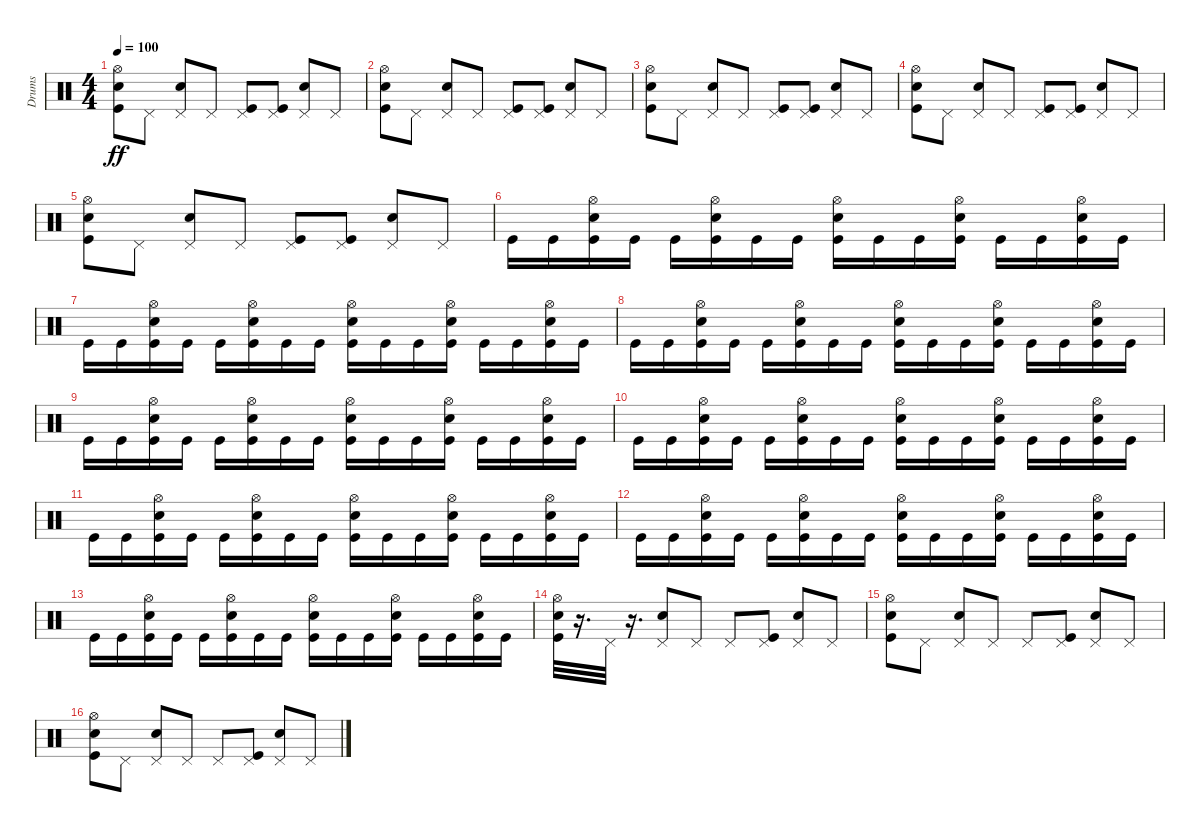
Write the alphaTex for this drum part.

\track ("Drums" "Drums") {instrument percussion}
\staff {score}
\articulation defaults
\ts (4 4)
\tempo 100
\clef neutral
\ks c
("Kick (hit)" "Electric Snare (hit)" "Hi-Hat (open)").8{dy ff} "Pedal Hi-Hat (hit)".8 ("Electric Snare (hit)" "Pedal Hi-Hat (hit)").8 "Pedal Hi-Hat (hit)".8 ("Kick (hit)" "Pedal Hi-Hat (hit)").8 ("Kick (hit)" "Pedal Hi-Hat (hit)").8 ("Electric Snare (hit)" "Pedal Hi-Hat (hit)").8 "Pedal Hi-Hat (hit)".8 |
("Kick (hit)" "Electric Snare (hit)" "Hi-Hat (open)").8 "Pedal Hi-Hat (hit)".8 ("Electric Snare (hit)" "Pedal Hi-Hat (hit)").8 "Pedal Hi-Hat (hit)".8 ("Kick (hit)" "Pedal Hi-Hat (hit)").8 ("Kick (hit)" "Pedal Hi-Hat (hit)").8 ("Electric Snare (hit)" "Pedal Hi-Hat (hit)").8 "Pedal Hi-Hat (hit)".8 |
("Kick (hit)" "Electric Snare (hit)" "Hi-Hat (open)").8 "Pedal Hi-Hat (hit)".8 ("Electric Snare (hit)" "Pedal Hi-Hat (hit)").8 "Pedal Hi-Hat (hit)".8 ("Kick (hit)" "Pedal Hi-Hat (hit)").8 ("Kick (hit)" "Pedal Hi-Hat (hit)").8 ("Electric Snare (hit)" "Pedal Hi-Hat (hit)").8 "Pedal Hi-Hat (hit)".8 |
("Kick (hit)" "Electric Snare (hit)" "Hi-Hat (open)").8 "Pedal Hi-Hat (hit)".8 ("Electric Snare (hit)" "Pedal Hi-Hat (hit)").8 "Pedal Hi-Hat (hit)".8 ("Kick (hit)" "Pedal Hi-Hat (hit)").8 ("Kick (hit)" "Pedal Hi-Hat (hit)").8 ("Electric Snare (hit)" "Pedal Hi-Hat (hit)").8 "Pedal Hi-Hat (hit)".8 |
("Kick (hit)" "Electric Snare (hit)" "Hi-Hat (open)").8 "Pedal Hi-Hat (hit)".8 ("Electric Snare (hit)" "Pedal Hi-Hat (hit)").8 "Pedal Hi-Hat (hit)".8 ("Kick (hit)" "Pedal Hi-Hat (hit)").8 ("Kick (hit)" "Pedal Hi-Hat (hit)").8 ("Electric Snare (hit)" "Pedal Hi-Hat (hit)").8 "Pedal Hi-Hat (hit)".8 |
"Kick (hit)".16 "Kick (hit)".16 ("Kick (hit)" "Electric Snare (hit)" "Hi-Hat (open)").16 "Kick (hit)".16 "Kick (hit)".16 ("Kick (hit)" "Electric Snare (hit)" "Hi-Hat (open)").16 "Kick (hit)".16 "Kick (hit)".16 ("Kick (hit)" "Electric Snare (hit)" "Hi-Hat (open)").16 "Kick (hit)".16 "Kick (hit)".16 ("Kick (hit)" "Electric Snare (hit)" "Hi-Hat (open)").16 "Kick (hit)".16 "Kick (hit)".16 ("Kick (hit)" "Electric Snare (hit)" "Hi-Hat (open)").16 "Kick (hit)".16 |
"Kick (hit)".16 "Kick (hit)".16 ("Kick (hit)" "Electric Snare (hit)" "Hi-Hat (open)").16 "Kick (hit)".16 "Kick (hit)".16 ("Kick (hit)" "Electric Snare (hit)" "Hi-Hat (open)").16 "Kick (hit)".16 "Kick (hit)".16 ("Kick (hit)" "Electric Snare (hit)" "Hi-Hat (open)").16 "Kick (hit)".16 "Kick (hit)".16 ("Kick (hit)" "Electric Snare (hit)" "Hi-Hat (open)").16 "Kick (hit)".16 "Kick (hit)".16 ("Kick (hit)" "Electric Snare (hit)" "Hi-Hat (open)").16 "Kick (hit)".16 |
"Kick (hit)".16 "Kick (hit)".16 ("Kick (hit)" "Electric Snare (hit)" "Hi-Hat (open)").16 "Kick (hit)".16 "Kick (hit)".16 ("Kick (hit)" "Electric Snare (hit)" "Hi-Hat (open)").16 "Kick (hit)".16 "Kick (hit)".16 ("Kick (hit)" "Electric Snare (hit)" "Hi-Hat (open)").16 "Kick (hit)".16 "Kick (hit)".16 ("Kick (hit)" "Electric Snare (hit)" "Hi-Hat (open)").16 "Kick (hit)".16 "Kick (hit)".16 ("Kick (hit)" "Electric Snare (hit)" "Hi-Hat (open)").16 "Kick (hit)".16 |
"Kick (hit)".16 "Kick (hit)".16 ("Kick (hit)" "Electric Snare (hit)" "Hi-Hat (open)").16 "Kick (hit)".16 "Kick (hit)".16 ("Kick (hit)" "Electric Snare (hit)" "Hi-Hat (open)").16 "Kick (hit)".16 "Kick (hit)".16 ("Kick (hit)" "Electric Snare (hit)" "Hi-Hat (open)").16 "Kick (hit)".16 "Kick (hit)".16 ("Kick (hit)" "Electric Snare (hit)" "Hi-Hat (open)").16 "Kick (hit)".16 "Kick (hit)".16 ("Kick (hit)" "Electric Snare (hit)" "Hi-Hat (open)").16 "Kick (hit)".16 |
"Kick (hit)".16 "Kick (hit)".16 ("Kick (hit)" "Electric Snare (hit)" "Hi-Hat (open)").16 "Kick (hit)".16 "Kick (hit)".16 ("Kick (hit)" "Electric Snare (hit)" "Hi-Hat (open)").16 "Kick (hit)".16 "Kick (hit)".16 ("Kick (hit)" "Electric Snare (hit)" "Hi-Hat (open)").16 "Kick (hit)".16 "Kick (hit)".16 ("Kick (hit)" "Electric Snare (hit)" "Hi-Hat (open)").16 "Kick (hit)".16 "Kick (hit)".16 ("Kick (hit)" "Electric Snare (hit)" "Hi-Hat (open)").16 "Kick (hit)".16 |
"Kick (hit)".16 "Kick (hit)".16 ("Kick (hit)" "Electric Snare (hit)" "Hi-Hat (open)").16 "Kick (hit)".16 "Kick (hit)".16 ("Kick (hit)" "Electric Snare (hit)" "Hi-Hat (open)").16 "Kick (hit)".16 "Kick (hit)".16 ("Kick (hit)" "Electric Snare (hit)" "Hi-Hat (open)").16 "Kick (hit)".16 "Kick (hit)".16 ("Kick (hit)" "Electric Snare (hit)" "Hi-Hat (open)").16 "Kick (hit)".16 "Kick (hit)".16 ("Kick (hit)" "Electric Snare (hit)" "Hi-Hat (open)").16 "Kick (hit)".16 |
"Kick (hit)".16 "Kick (hit)".16 ("Kick (hit)" "Electric Snare (hit)" "Hi-Hat (open)").16 "Kick (hit)".16 "Kick (hit)".16 ("Kick (hit)" "Electric Snare (hit)" "Hi-Hat (open)").16 "Kick (hit)".16 "Kick (hit)".16 ("Kick (hit)" "Electric Snare (hit)" "Hi-Hat (open)").16 "Kick (hit)".16 "Kick (hit)".16 ("Kick (hit)" "Electric Snare (hit)" "Hi-Hat (open)").16 "Kick (hit)".16 "Kick (hit)".16 ("Kick (hit)" "Electric Snare (hit)" "Hi-Hat (open)").16 "Kick (hit)".16 |
"Kick (hit)".16 "Kick (hit)".16 ("Kick (hit)" "Electric Snare (hit)" "Hi-Hat (open)").16 "Kick (hit)".16 "Kick (hit)".16 ("Kick (hit)" "Electric Snare (hit)" "Hi-Hat (open)").16 "Kick (hit)".16 "Kick (hit)".16 ("Kick (hit)" "Electric Snare (hit)" "Hi-Hat (open)").16 "Kick (hit)".16 "Kick (hit)".16 ("Kick (hit)" "Electric Snare (hit)" "Hi-Hat (open)").16 "Kick (hit)".16 "Kick (hit)".16 ("Kick (hit)" "Electric Snare (hit)" "Hi-Hat (open)").16 "Kick (hit)".16 |
("Kick (hit)" "Electric Snare (hit)" "Hi-Hat (open)").32 r.16{d} "Pedal Hi-Hat (hit)".32 r.16{d} ("Electric Snare (hit)" "Pedal Hi-Hat (hit)").8 "Pedal Hi-Hat (hit)".8 "Pedal Hi-Hat (hit)".8 ("Kick (hit)" "Pedal Hi-Hat (hit)").8 ("Electric Snare (hit)" "Pedal Hi-Hat (hit)").8 "Pedal Hi-Hat (hit)".8 |
("Kick (hit)" "Electric Snare (hit)" "Hi-Hat (open)").8 "Pedal Hi-Hat (hit)".8 ("Electric Snare (hit)" "Pedal Hi-Hat (hit)").8 "Pedal Hi-Hat (hit)".8 "Pedal Hi-Hat (hit)".8 ("Kick (hit)" "Pedal Hi-Hat (hit)").8 ("Electric Snare (hit)" "Pedal Hi-Hat (hit)").8 "Pedal Hi-Hat (hit)".8 |
("Kick (hit)" "Electric Snare (hit)" "Hi-Hat (open)").8 "Pedal Hi-Hat (hit)".8 ("Electric Snare (hit)" "Pedal Hi-Hat (hit)").8 "Pedal Hi-Hat (hit)".8 "Pedal Hi-Hat (hit)".8 ("Kick (hit)" "Pedal Hi-Hat (hit)").8 ("Electric Snare (hit)" "Pedal Hi-Hat (hit)").8 "Pedal Hi-Hat (hit)".8
